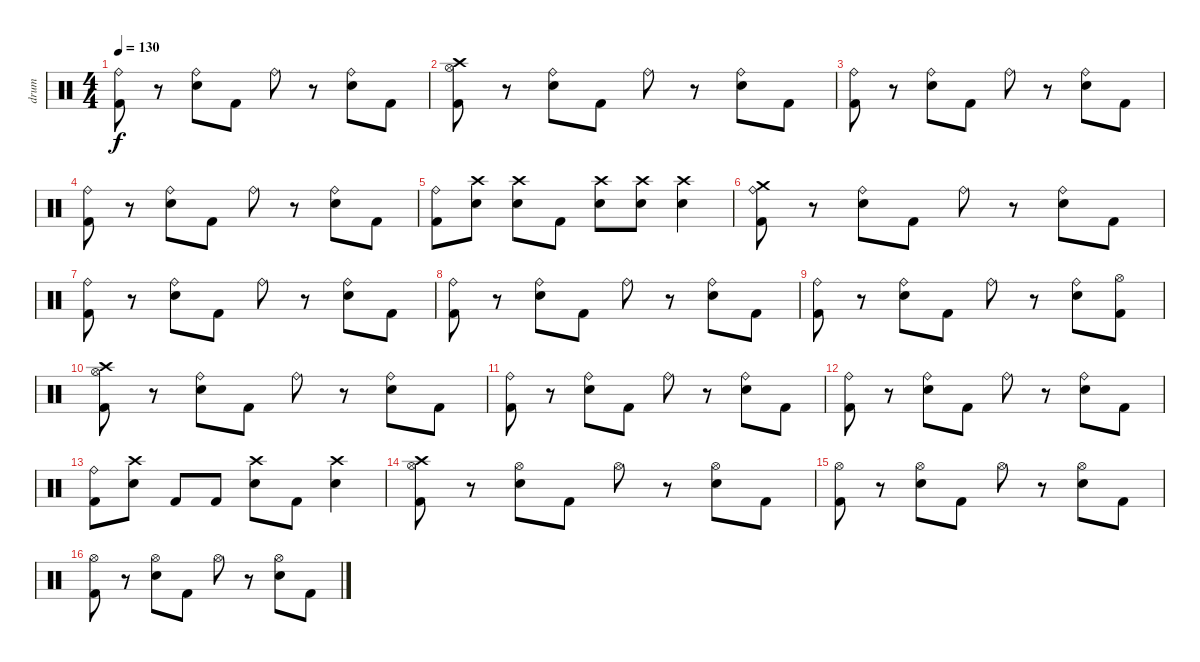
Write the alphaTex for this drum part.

\track ("drum" "drum") {instrument percussion}
\staff {score}
\articulation defaults
\ts (4 4)
\tempo 130
\clef neutral
\ks c
("Ride (bell)" "Kick (hit) 2").8{dy f} r.8 ("Ride (bell)" "Electric Snare (hit)").8 "Kick (hit) 2".8 "Ride (bell)".8 r.8 ("Ride (bell)" "Electric Snare (hit)").8 "Kick (hit) 2".8 |
("Crash high (hit)" "Hi-Hat (open)" "Kick (hit) 2").8 r.8 ("Ride (bell)" "Electric Snare (hit)").8 "Kick (hit) 2".8 "Ride (bell)".8 r.8 ("Ride (bell)" "Electric Snare (hit)").8 "Kick (hit) 2".8 |
("Ride (bell)" "Kick (hit) 2").8 r.8 ("Ride (bell)" "Electric Snare (hit)").8 "Kick (hit) 2".8 "Ride (bell)".8 r.8 ("Ride (bell)" "Electric Snare (hit)").8 "Kick (hit) 2".8 |
("Ride (bell)" "Kick (hit) 2").8 r.8 ("Ride (bell)" "Electric Snare (hit)").8 "Kick (hit) 2".8 "Ride (bell)".8 r.8 ("Ride (bell)" "Electric Snare (hit)").8 "Kick (hit) 2".8 |
("Ride (bell)" "Kick (hit) 2").8 ("Crash high (hit)" "Electric Snare (hit)").8 ("Crash high (hit)" "Electric Snare (hit)").8 "Kick (hit) 2".8 ("Crash high (hit)" "Electric Snare (hit)").8 ("Crash high (hit)" "Electric Snare (hit)").8 ("Crash high (hit)" "Electric Snare (hit)").4 |
("Crash medium (hit)" "Ride (bell)" "Kick (hit) 2").8 r.8 ("Ride (bell)" "Electric Snare (hit)").8 "Kick (hit) 2".8 "Ride (bell)".8 r.8 ("Ride (bell)" "Electric Snare (hit)").8 "Kick (hit) 2".8 |
("Ride (bell)" "Kick (hit) 2").8 r.8 ("Ride (bell)" "Electric Snare (hit)").8 "Kick (hit) 2".8 "Ride (bell)".8 r.8 ("Ride (bell)" "Electric Snare (hit)").8 "Kick (hit) 2".8 |
("Ride (bell)" "Kick (hit) 2").8 r.8 ("Ride (bell)" "Electric Snare (hit)").8 "Kick (hit) 2".8 "Ride (bell)".8 r.8 ("Ride (bell)" "Electric Snare (hit)").8 "Kick (hit) 2".8 |
("Ride (bell)" "Kick (hit) 2").8 r.8 ("Ride (bell)" "Electric Snare (hit)").8 "Kick (hit) 2".8 "Ride (bell)".8 r.8 ("Ride (bell)" "Electric Snare (hit)").8 ("Hi-Hat (open)" "Kick (hit) 2").8 |
("Crash high (hit)" "Hi-Hat (open)" "Kick (hit) 2").8 r.8 ("Ride (bell)" "Electric Snare (hit)").8 "Kick (hit) 2".8 "Ride (bell)".8 r.8 ("Ride (bell)" "Electric Snare (hit)").8 "Kick (hit) 2".8 |
("Ride (bell)" "Kick (hit) 2").8 r.8 ("Ride (bell)" "Electric Snare (hit)").8 "Kick (hit) 2".8 "Ride (bell)".8 r.8 ("Ride (bell)" "Electric Snare (hit)").8 "Kick (hit) 2".8 |
("Ride (bell)" "Kick (hit) 2").8 r.8 ("Ride (bell)" "Electric Snare (hit)").8 "Kick (hit) 2".8 "Ride (bell)".8 r.8 ("Ride (bell)" "Electric Snare (hit)").8 "Kick (hit) 2".8 |
("Ride (bell)" "Kick (hit) 2").8 ("Crash high (hit)" "Electric Snare (hit)").8 "Kick (hit) 2".8 "Kick (hit) 2".8 ("Crash high (hit)" "Electric Snare (hit)").8 "Kick (hit) 2".8 ("Crash high (hit)" "Electric Snare (hit)").4 |
("Crash high (hit)" "Hi-Hat (open)" "Kick (hit) 2").8 r.8 ("Hi-Hat (open)" "Electric Snare (hit)").8 "Kick (hit) 2".8 "Hi-Hat (open)".8 r.8 ("Hi-Hat (open)" "Electric Snare (hit)").8 "Kick (hit) 2".8 |
("Hi-Hat (open)" "Kick (hit) 2").8 r.8 ("Hi-Hat (open)" "Electric Snare (hit)").8 "Kick (hit) 2".8 "Hi-Hat (open)".8 r.8 ("Hi-Hat (open)" "Electric Snare (hit)").8 "Kick (hit) 2".8 |
("Hi-Hat (open)" "Kick (hit) 2").8 r.8 ("Hi-Hat (open)" "Electric Snare (hit)").8 "Kick (hit) 2".8 "Hi-Hat (open)".8 r.8 ("Hi-Hat (open)" "Electric Snare (hit)").8 "Kick (hit) 2".8
